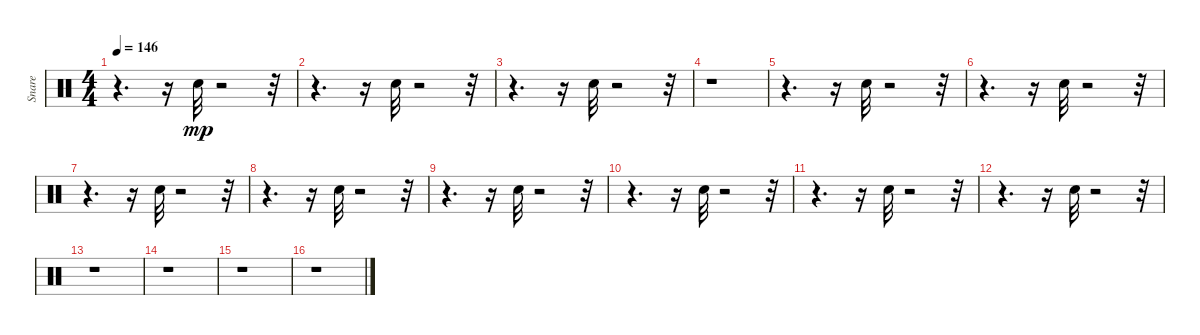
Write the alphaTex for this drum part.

\track ("Snare" "Snare") {instrument percussion}
\staff {score}
\articulation defaults
\ts (4 4)
\tempo 146
\clef neutral
\ks c
r.4{d dy mp} r.16 "Electric Snare (hit)".32 r.2 r.32 |
r.4{d} r.16 "Electric Snare (hit)".32 r.2 r.32 |
r.4{d} r.16 "Electric Snare (hit)".32 r.2 r.32 |
r.1 |
r.4{d} r.16 "Electric Snare (hit)".32 r.2 r.32 |
r.4{d} r.16 "Electric Snare (hit)".32 r.2 r.32 |
r.4{d} r.16 "Electric Snare (hit)".32 r.2 r.32 |
r.4{d} r.16 "Electric Snare (hit)".32 r.2 r.32 |
r.4{d} r.16 "Electric Snare (hit)".32 r.2 r.32 |
r.4{d} r.16 "Electric Snare (hit)".32 r.2 r.32 |
r.4{d} r.16 "Electric Snare (hit)".32 r.2 r.32 |
r.4{d} r.16 "Electric Snare (hit)".32 r.2 r.32 |
r.1 |
r.1 |
r.1 |
r.1
